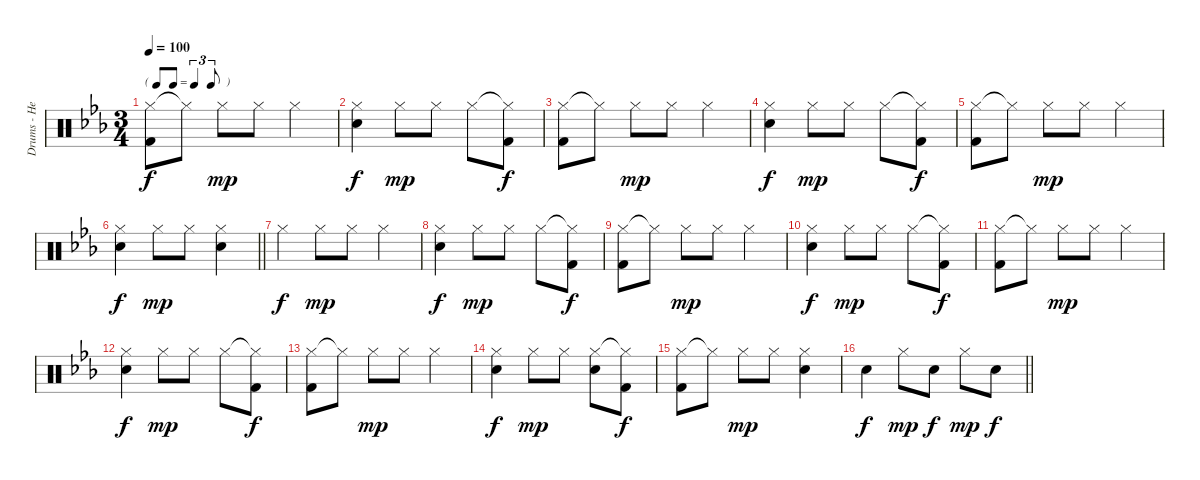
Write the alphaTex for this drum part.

\track ("Drums - Henley" "Drums - He") {instrument percussion}
\staff {score}
\articulation defaults
\ts (3 4)
\tf triplet8th
\tempo 100
\clef neutral
\ks eb
("Hi-Hat (closed)" "Kick (hit) 2").8{dy f} "Hi-Hat (closed)"{t}.8 "Hi-Hat (closed)".8{dy mp} "Hi-Hat (closed)".8 "Hi-Hat (closed)".4 |
("Hi-Hat (closed)" "Electric Snare (hit)").4{dy f} "Hi-Hat (closed)".8{dy mp} "Hi-Hat (closed)".8 "Hi-Hat (closed)".8 ("Hi-Hat (closed)"{t} "Kick (hit) 2").8{dy f} |
("Hi-Hat (closed)" "Kick (hit) 2").8 "Hi-Hat (closed)"{t}.8 "Hi-Hat (closed)".8{dy mp} "Hi-Hat (closed)".8 "Hi-Hat (closed)".4 |
("Hi-Hat (closed)" "Electric Snare (hit)").4{dy f} "Hi-Hat (closed)".8{dy mp} "Hi-Hat (closed)".8 "Hi-Hat (closed)".8 ("Hi-Hat (closed)"{t} "Kick (hit) 2").8{dy f} |
("Hi-Hat (closed)" "Kick (hit) 2").8 "Hi-Hat (closed)"{t}.8 "Hi-Hat (closed)".8{dy mp} "Hi-Hat (closed)".8 "Hi-Hat (closed)".4 |
\barLineRight lightlight
("Hi-Hat (closed)" "Electric Snare (hit)").4{dy f} "Hi-Hat (closed)".8{dy mp} "Hi-Hat (closed)".8 ("Hi-Hat (closed)" "Electric Snare (hit)").4 |
"Hi-Hat (closed)".4{dy f} "Hi-Hat (closed)".8{dy mp} "Hi-Hat (closed)".8 "Hi-Hat (closed)".4 |
("Hi-Hat (closed)" "Electric Snare (hit)").4{dy f} "Hi-Hat (closed)".8{dy mp} "Hi-Hat (closed)".8 "Hi-Hat (closed)".8 ("Hi-Hat (closed)"{t} "Kick (hit) 2").8{dy f} |
("Hi-Hat (closed)" "Kick (hit) 2").8 "Hi-Hat (closed)"{t}.8 "Hi-Hat (closed)".8{dy mp} "Hi-Hat (closed)".8 "Hi-Hat (closed)".4 |
("Hi-Hat (closed)" "Electric Snare (hit)").4{dy f} "Hi-Hat (closed)".8{dy mp} "Hi-Hat (closed)".8 "Hi-Hat (closed)".8 ("Hi-Hat (closed)"{t} "Kick (hit) 2").8{dy f} |
("Hi-Hat (closed)" "Kick (hit) 2").8 "Hi-Hat (closed)"{t}.8 "Hi-Hat (closed)".8{dy mp} "Hi-Hat (closed)".8 "Hi-Hat (closed)".4 |
("Hi-Hat (closed)" "Electric Snare (hit)").4{dy f} "Hi-Hat (closed)".8{dy mp} "Hi-Hat (closed)".8 "Hi-Hat (closed)".8 ("Hi-Hat (closed)"{t} "Kick (hit) 2").8{dy f} |
("Hi-Hat (closed)" "Kick (hit) 2").8 "Hi-Hat (closed)"{t}.8 "Hi-Hat (closed)".8{dy mp} "Hi-Hat (closed)".8 "Hi-Hat (closed)".4 |
("Hi-Hat (closed)" "Electric Snare (hit)").4{dy f} "Hi-Hat (closed)".8{dy mp} "Hi-Hat (closed)".8 ("Hi-Hat (closed)" "Electric Snare (hit)").8 ("Hi-Hat (closed)"{t} "Kick (hit) 2").8{dy f} |
("Hi-Hat (closed)" "Kick (hit) 2").8 "Hi-Hat (closed)"{t}.8 "Hi-Hat (closed)".8{dy mp} "Hi-Hat (closed)".8 ("Hi-Hat (closed)" "Electric Snare (hit)").4 |
\barLineRight lightlight "Electric Snare (hit)".4{dy f} "Hi-Hat (closed)".8{dy mp} "Electric Snare (hit)".8{dy f} "Hi-Hat (closed)".8{dy mp} "Electric Snare (hit)".8{dy f}
